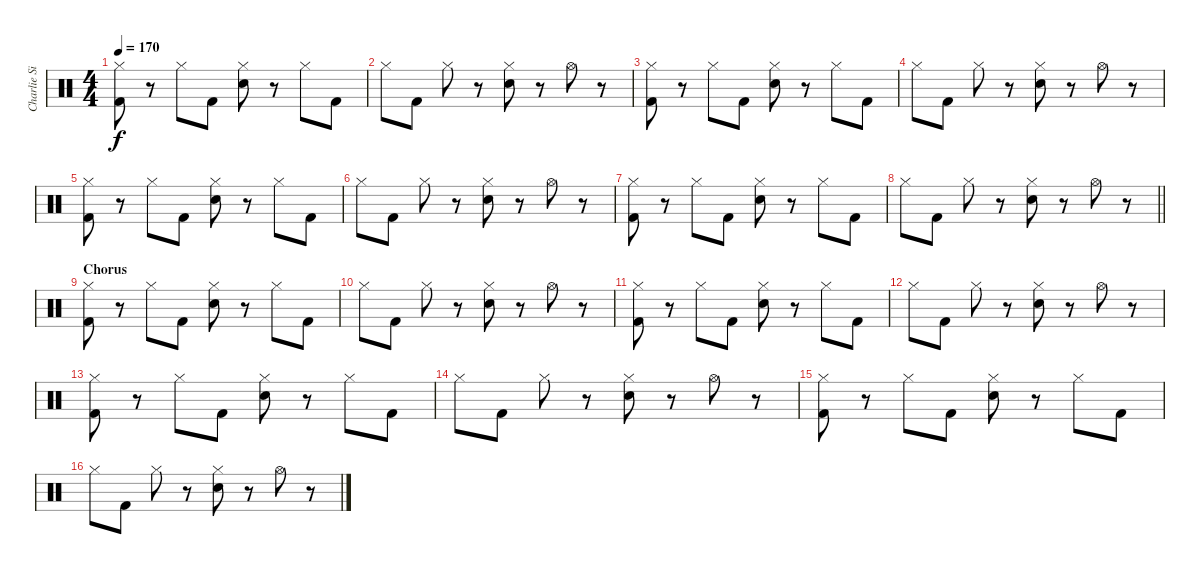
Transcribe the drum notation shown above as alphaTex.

\track ("Charlie Simpson (Drums)" "Charlie Si") {instrument percussion}
\staff {score}
\articulation defaults
\ts (4 4)
\tempo 170
\clef neutral
\ks c
("Hi-Hat (closed)" "Kick (hit) 2").8{dy f} r.8 "Hi-Hat (closed)".8 "Kick (hit) 2".8 ("Hi-Hat (closed)" "Snare (hit) 2").8 r.8 "Hi-Hat (closed)".8 "Kick (hit) 2".8 |
"Hi-Hat (closed)".8 "Kick (hit) 2".8 "Hi-Hat (closed)".8 r.8 ("Hi-Hat (closed)" "Snare (hit) 2").8 r.8 "Hi-Hat (open)".8 r.8 |
("Hi-Hat (closed)" "Kick (hit) 2").8 r.8 "Hi-Hat (closed)".8 "Kick (hit) 2".8 ("Hi-Hat (closed)" "Snare (hit) 2").8 r.8 "Hi-Hat (closed)".8 "Kick (hit) 2".8 |
"Hi-Hat (closed)".8 "Kick (hit) 2".8 "Hi-Hat (closed)".8 r.8 ("Hi-Hat (closed)" "Snare (hit) 2").8 r.8 "Hi-Hat (open)".8 r.8 |
("Hi-Hat (closed)" "Kick (hit) 2").8 r.8 "Hi-Hat (closed)".8 "Kick (hit) 2".8 ("Hi-Hat (closed)" "Snare (hit) 2").8 r.8 "Hi-Hat (closed)".8 "Kick (hit) 2".8 |
"Hi-Hat (closed)".8 "Kick (hit) 2".8 "Hi-Hat (closed)".8 r.8 ("Hi-Hat (closed)" "Snare (hit) 2").8 r.8 "Hi-Hat (open)".8 r.8 |
("Hi-Hat (closed)" "Kick (hit) 2").8 r.8 "Hi-Hat (closed)".8 "Kick (hit) 2".8 ("Hi-Hat (closed)" "Snare (hit) 2").8 r.8 "Hi-Hat (closed)".8 "Kick (hit) 2".8 |
\barLineRight lightlight "Hi-Hat (closed)".8 "Kick (hit) 2".8 "Hi-Hat (closed)".8
r.8 ("Hi-Hat (closed)" "Snare (hit) 2").8 r.8 "Hi-Hat (open)".8 r.8 |
\section ("" "Chorus")
("Hi-Hat (closed)" "Kick (hit) 2").8 r.8 "Hi-Hat (closed)".8 "Kick (hit) 2".8 ("Hi-Hat (closed)" "Snare (hit) 2").8 r.8 "Hi-Hat (closed)".8 "Kick (hit) 2".8 |
"Hi-Hat (closed)".8 "Kick (hit) 2".8 "Hi-Hat (closed)".8 r.8 ("Hi-Hat (closed)" "Snare (hit) 2").8 r.8 "Hi-Hat (open)".8 r.8 |
("Hi-Hat (closed)" "Kick (hit) 2").8 r.8 "Hi-Hat (closed)".8 "Kick (hit) 2".8 ("Hi-Hat (closed)" "Snare (hit) 2").8 r.8 "Hi-Hat (closed)".8 "Kick (hit) 2".8 |
"Hi-Hat (closed)".8 "Kick (hit) 2".8 "Hi-Hat (closed)".8 r.8 ("Hi-Hat (closed)" "Snare (hit) 2").8 r.8 "Hi-Hat (open)".8 r.8 |
("Hi-Hat (closed)" "Kick (hit) 2").8 r.8 "Hi-Hat (closed)".8 "Kick (hit) 2".8 ("Hi-Hat (closed)" "Snare (hit) 2").8 r.8 "Hi-Hat (closed)".8 "Kick (hit) 2".8 |
"Hi-Hat (closed)".8 "Kick (hit) 2".8 "Hi-Hat (closed)".8 r.8 ("Hi-Hat (closed)" "Snare (hit) 2").8 r.8 "Hi-Hat (open)".8 r.8 |
("Hi-Hat (closed)" "Kick (hit) 2").8 r.8 "Hi-Hat (closed)".8 "Kick (hit) 2".8 ("Hi-Hat (closed)" "Snare (hit) 2").8 r.8 "Hi-Hat (closed)".8 "Kick (hit) 2".8 |
"Hi-Hat (closed)".8 "Kick (hit) 2".8 "Hi-Hat (closed)".8 r.8 ("Hi-Hat (closed)" "Snare (hit) 2").8 r.8 "Hi-Hat (open)".8 r.8
